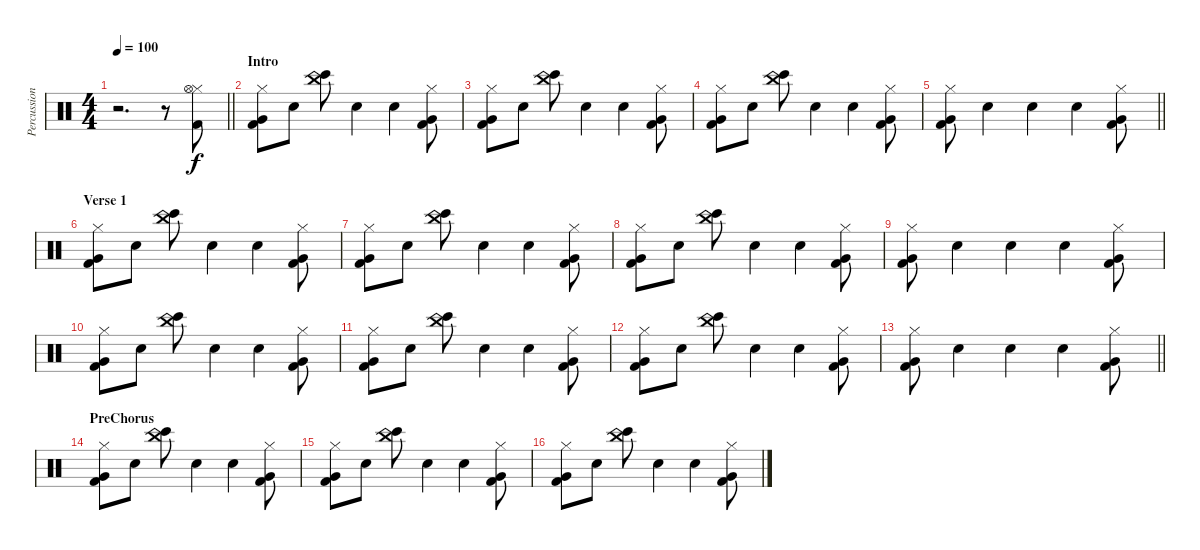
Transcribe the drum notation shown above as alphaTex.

\track ("Percussion" "Percussion") {instrument percussion}
\staff {score}
\articulation defaults
\ts (4 4)
\tempo 100
\clef neutral
\barLineRight lightlight
\ks c
r.2{d dy f} r.8 ("Hi-Hat (closed)" "Hi-Hat (open)" "Kick (hit) 2").8 |
\section ("" "Intro")
("Hi-Hat (closed)" "Very Low Tom (hit)" "Kick (hit) 2").8 "Hand Clap (hit)".8 ("Bongo High (hit)" "China (hit)").8 "Hand Clap (hit)".4 "Hand Clap (hit)".4 ("Hi-Hat (closed)" "Kick (hit) 2" "Very Low Tom (hit)").8 |
("Hi-Hat (closed)" "Very Low Tom (hit)" "Kick (hit) 2").8 "Hand Clap (hit)".8 ("Bongo High (hit)" "China (hit)").8 "Hand Clap (hit)".4 "Hand Clap (hit)".4 ("Hi-Hat (closed)" "Very Low Tom (hit)" "Kick (hit) 2").8 |
("Hi-Hat (closed)" "Kick (hit) 2" "Very Low Tom (hit)").8 "Hand Clap (hit)".8 ("Bongo High (hit)" "China (hit)").8 "Hand Clap (hit)".4 "Hand Clap (hit)".4 ("Hi-Hat (closed)" "Very Low Tom (hit)" "Kick (hit) 2").8 |
\barLineRight lightlight
("Hi-Hat (closed)" "Very Low Tom (hit)" "Kick (hit) 2").8 "Hand Clap (hit)".4 "Hand Clap (hit)".4 "Hand Clap (hit)".4 ("Very Low Tom (hit)" "Kick (hit) 2" "Hi-Hat (closed)").8 |
\section ("" "Verse 1")
("Hi-Hat (closed)" "Very Low Tom (hit)" "Kick (hit) 2").8 "Hand Clap (hit)".8 ("Bongo High (hit)" "China (hit)").8 "Hand Clap (hit)".4 "Hand Clap (hit)".4 ("Hi-Hat (closed)" "Kick (hit) 2" "Very Low Tom (hit)").8 |
("Hi-Hat (closed)" "Very Low Tom (hit)" "Kick (hit) 2").8 "Hand Clap (hit)".8 ("Bongo High (hit)" "China (hit)").8 "Hand Clap (hit)".4 "Hand Clap (hit)".4 ("Hi-Hat (closed)" "Very Low Tom (hit)" "Kick (hit) 2").8 |
("Hi-Hat (closed)" "Kick (hit) 2" "Very Low Tom (hit)").8 "Hand Clap (hit)".8 ("Bongo High (hit)" "China (hit)").8 "Hand Clap (hit)".4 "Hand Clap (hit)".4 ("Hi-Hat (closed)" "Very Low Tom (hit)" "Kick (hit) 2").8 |
("Hi-Hat (closed)" "Very Low Tom (hit)" "Kick (hit) 2").8 "Hand Clap (hit)".4 "Hand Clap (hit)".4 "Hand Clap (hit)".4 ("Very Low Tom (hit)" "Kick (hit) 2" "Hi-Hat (closed)").8 |
("Hi-Hat (closed)" "Very Low Tom (hit)" "Kick (hit) 2").8 "Hand Clap (hit)".8 ("Bongo High (hit)" "China (hit)").8 "Hand Clap (hit)".4 "Hand Clap (hit)".4 ("Hi-Hat (closed)" "Kick (hit) 2" "Very Low Tom (hit)").8 |
("Hi-Hat (closed)" "Very Low Tom (hit)" "Kick (hit) 2").8 "Hand Clap (hit)".8 ("Bongo High (hit)" "China (hit)").8 "Hand Clap (hit)".4 "Hand Clap (hit)".4 ("Hi-Hat (closed)" "Very Low Tom (hit)" "Kick (hit) 2").8 |
("Hi-Hat (closed)" "Kick (hit) 2" "Very Low Tom (hit)").8 "Hand Clap (hit)".8 ("Bongo High (hit)" "China (hit)").8 "Hand Clap (hit)".4 "Hand Clap (hit)".4 ("Hi-Hat (closed)" "Very Low Tom (hit)" "Kick (hit) 2").8 |
\barLineRight lightlight
("Hi-Hat (closed)" "Very Low Tom (hit)" "Kick (hit) 2").8 "Hand Clap (hit)".4 "Hand Clap (hit)".4 "Hand Clap (hit)".4 ("Very Low Tom (hit)" "Kick (hit) 2" "Hi-Hat (closed)").8 |
\section ("" "PreChorus")
("Hi-Hat (closed)" "Very Low Tom (hit)" "Kick (hit) 2").8 "Hand Clap (hit)".8 ("Bongo High (hit)" "China (hit)").8 "Hand Clap (hit)".4 "Hand Clap (hit)".4 ("Hi-Hat (closed)" "Kick (hit) 2" "Very Low Tom (hit)").8 |
("Hi-Hat (closed)" "Very Low Tom (hit)" "Kick (hit) 2").8 "Hand Clap (hit)".8 ("Bongo High (hit)" "China (hit)").8 "Hand Clap (hit)".4 "Hand Clap (hit)".4 ("Hi-Hat (closed)" "Very Low Tom (hit)" "Kick (hit) 2").8 |
("Hi-Hat (closed)" "Kick (hit) 2" "Very Low Tom (hit)").8 "Hand Clap (hit)".8 ("Bongo High (hit)" "China (hit)").8 "Hand Clap (hit)".4 "Hand Clap (hit)".4 ("Hi-Hat (closed)" "Very Low Tom (hit)" "Kick (hit) 2").8
